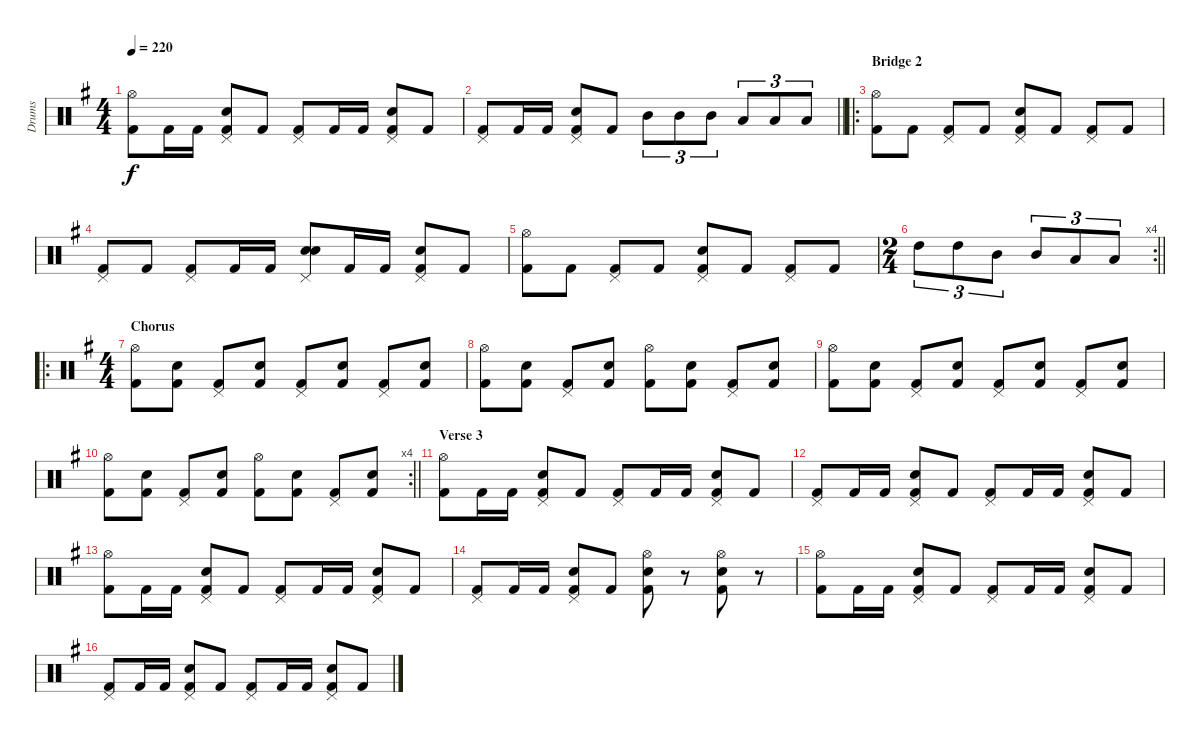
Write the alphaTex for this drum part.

\track ("Drums" "Drums") {instrument percussion}
\staff {score}
\articulation defaults
\ts (4 4)
\tempo 220
\clef neutral
\ks g
("Hi-Hat (open)" "Kick (hit) 2").8{dy f} "Kick (hit) 2".16 "Kick (hit) 2".16 ("Pedal Hi-Hat (hit)" "Snare (hit) 2" "Kick (hit) 2").8 "Kick (hit) 2".8 ("Pedal Hi-Hat (hit)" "Kick (hit) 2").8 "Kick (hit) 2".16 "Kick (hit) 2".16 ("Pedal Hi-Hat (hit)" "Snare (hit) 2" "Kick (hit) 2").8 "Kick (hit) 2".8 |
\barLineRight lightlight
("Pedal Hi-Hat (hit)" "Kick (hit) 2").8 "Kick (hit) 2".16 "Kick (hit) 2".16 ("Pedal Hi-Hat (hit)" "Snare (hit) 2" "Kick (hit) 2").8 "Kick (hit) 2".8 "Mid Tom (hit)".8{tu (3 2)} "Mid Tom (hit)".8{tu (3 2)} "Mid Tom (hit)".8{tu (3 2)} "Low Tom (hit)".8{tu (3 2)} "Low Tom (hit)".8{tu (3 2)} "Low Tom (hit)".8{tu (3 2)} |
\ro
\section ("" "Bridge 2")
("Hi-Hat (open)" "Kick (hit) 2").8 "Kick (hit) 2".8 ("Pedal Hi-Hat (hit)" "Kick (hit) 2").8 "Kick (hit) 2".8 ("Pedal Hi-Hat (hit)" "Snare (hit) 2" "Kick (hit) 2").8 "Kick (hit) 2".8 ("Pedal Hi-Hat (hit)" "Kick (hit) 2").8 "Kick (hit) 2".8 |
("Pedal Hi-Hat (hit)" "Kick (hit) 2").8 "Kick (hit) 2".8 ("Pedal Hi-Hat (hit)" "Kick (hit) 2").8 "Kick (hit) 2".16 "Kick (hit) 2".16 ("Pedal Hi-Hat (hit)" "Snare (hit) 2" "Snare (hit) 2").8 "Kick (hit) 2".16 "Kick (hit) 2".16 ("Pedal Hi-Hat (hit)" "Snare (hit) 2" "Kick (hit) 2").8 "Kick (hit) 2".8 |
("Hi-Hat (open)" "Kick (hit) 2").8 "Kick (hit) 2".8 ("Pedal Hi-Hat (hit)" "Kick (hit) 2").8 "Kick (hit) 2".8 ("Pedal Hi-Hat (hit)" "Snare (hit) 2" "Kick (hit) 2").8 "Kick (hit) 2".8 ("Pedal Hi-Hat (hit)" "Kick (hit) 2").8 "Kick (hit) 2".8 |
\rc 4
\ts (2 4)
\barLineRight lightlight "High Tom (hit)".8{tu (3 2)} "High Tom (hit)".8{tu (3 2)} "Mid Tom (hit)".8{tu (3 2)} "Mid Tom (hit)".8{tu (3 2)} "Low Tom (hit)".8{tu (3 2)} "Low Tom (hit)".8{tu (3 2)}
|
\ro
\ts (4 4)
\section ("" "Chorus")
("Hi-Hat (open)" "Kick (hit) 2").8 ("Snare (hit) 2" "Kick (hit) 2").8 ("Pedal Hi-Hat (hit)" "Kick (hit) 2").8 ("Snare (hit) 2" "Kick (hit) 2").8 ("Pedal Hi-Hat (hit)" "Kick (hit) 2").8 ("Snare (hit) 2" "Kick (hit) 2").8 ("Pedal Hi-Hat (hit)" "Kick (hit) 2").8 ("Snare (hit) 2" "Kick (hit) 2").8 |
("Hi-Hat (open)" "Kick (hit) 2").8 ("Snare (hit) 2" "Kick (hit) 2").8 ("Pedal Hi-Hat (hit)" "Kick (hit) 2").8 ("Snare (hit) 2" "Kick (hit) 2").8 ("Hi-Hat (open)" "Kick (hit) 2").8 ("Snare (hit) 2" "Kick (hit) 2").8 ("Pedal Hi-Hat (hit)" "Kick (hit) 2").8 ("Snare (hit) 2" "Kick (hit) 2").8 |
("Hi-Hat (open)" "Kick (hit) 2").8 ("Snare (hit) 2" "Kick (hit) 2").8 ("Pedal Hi-Hat (hit)" "Kick (hit) 2").8 ("Snare (hit) 2" "Kick (hit) 2").8 ("Pedal Hi-Hat (hit)" "Kick (hit) 2").8 ("Snare (hit) 2" "Kick (hit) 2").8 ("Pedal Hi-Hat (hit)" "Kick (hit) 2").8 ("Snare (hit) 2" "Kick (hit) 2").8 |
\rc 4
\barLineRight lightlight
("Hi-Hat (open)" "Kick (hit) 2").8 ("Snare (hit) 2" "Kick (hit) 2").8 ("Pedal Hi-Hat (hit)" "Kick (hit) 2").8 ("Snare (hit) 2" "Kick (hit) 2").8 ("Hi-Hat (open)" "Kick (hit) 2").8 ("Snare (hit) 2" "Kick (hit) 2").8 ("Pedal Hi-Hat (hit)" "Kick (hit) 2").8 ("Snare (hit) 2" "Kick (hit) 2").8 |
\section ("" "Verse 3")
("Hi-Hat (open)" "Kick (hit) 2").8 "Kick (hit) 2".16 "Kick (hit) 2".16 ("Pedal Hi-Hat (hit)" "Snare (hit) 2" "Kick (hit) 2").8 "Kick (hit) 2".8 ("Pedal Hi-Hat (hit)" "Kick (hit) 2").8 "Kick (hit) 2".16 "Kick (hit) 2".16 ("Pedal Hi-Hat (hit)" "Snare (hit) 2" "Kick (hit) 2").8 "Kick (hit) 2".8 |
("Pedal Hi-Hat (hit)" "Kick (hit) 2").8 "Kick (hit) 2".16 "Kick (hit) 2".16 ("Pedal Hi-Hat (hit)" "Snare (hit) 2" "Kick (hit) 2").8 "Kick (hit) 2".8 ("Pedal Hi-Hat (hit)" "Kick (hit) 2").8 "Kick (hit) 2".16 "Kick (hit) 2".16 ("Pedal Hi-Hat (hit)" "Snare (hit) 2" "Kick (hit) 2").8 "Kick (hit) 2".8 |
("Hi-Hat (open)" "Kick (hit) 2").8 "Kick (hit) 2".16 "Kick (hit) 2".16 ("Pedal Hi-Hat (hit)" "Snare (hit) 2" "Kick (hit) 2").8 "Kick (hit) 2".8 ("Pedal Hi-Hat (hit)" "Kick (hit) 2").8 "Kick (hit) 2".16 "Kick (hit) 2".16 ("Pedal Hi-Hat (hit)" "Snare (hit) 2" "Kick (hit) 2").8 "Kick (hit) 2".8 |
("Pedal Hi-Hat (hit)" "Kick (hit) 2").8 "Kick (hit) 2".16 "Kick (hit) 2".16 ("Pedal Hi-Hat (hit)" "Snare (hit) 2" "Kick (hit) 2").8 "Kick (hit) 2".8 ("Hi-Hat (open)" "Snare (hit) 2" "Kick (hit) 2").8 r.8 ("Hi-Hat (open)" "Snare (hit) 2" "Kick (hit) 2").8 r.8 |
("Hi-Hat (open)" "Kick (hit) 2").8 "Kick (hit) 2".16 "Kick (hit) 2".16 ("Pedal Hi-Hat (hit)" "Snare (hit) 2" "Kick (hit) 2").8 "Kick (hit) 2".8 ("Pedal Hi-Hat (hit)" "Kick (hit) 2").8 "Kick (hit) 2".16 "Kick (hit) 2".16 ("Pedal Hi-Hat (hit)" "Snare (hit) 2" "Kick (hit) 2").8 "Kick (hit) 2".8 |
("Pedal Hi-Hat (hit)" "Kick (hit) 2").8 "Kick (hit) 2".16 "Kick (hit) 2".16 ("Pedal Hi-Hat (hit)" "Snare (hit) 2" "Kick (hit) 2").8 "Kick (hit) 2".8 ("Pedal Hi-Hat (hit)" "Kick (hit) 2").8 "Kick (hit) 2".16 "Kick (hit) 2".16 ("Pedal Hi-Hat (hit)" "Snare (hit) 2" "Kick (hit) 2").8 "Kick (hit) 2".8
